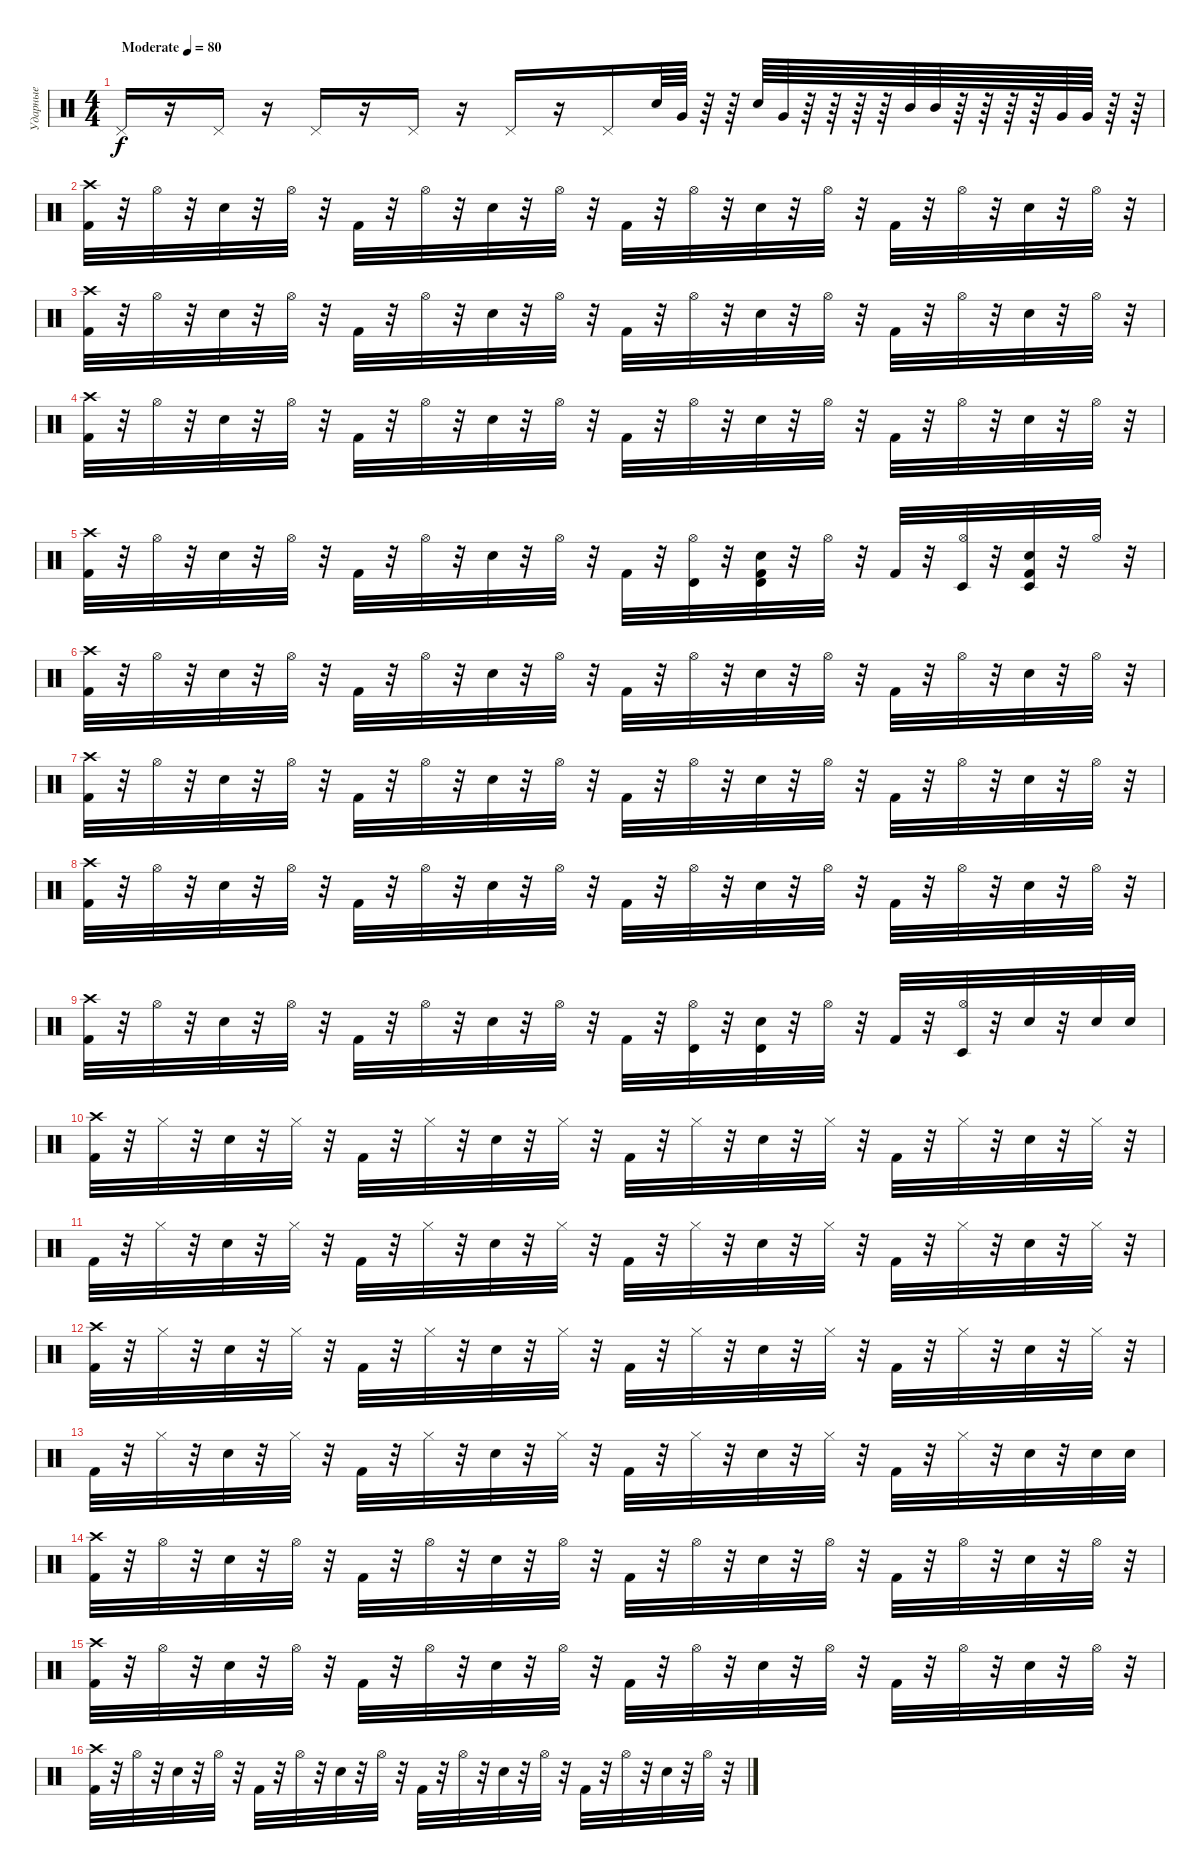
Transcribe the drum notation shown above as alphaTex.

\track ("Ударные" "Ударные") {instrument percussion}
\staff {score}
\articulation defaults
\ts (4 4)
\tempo (80 "Moderate")
\clef neutral
\ks c "Pedal Hi-Hat (hit)".16{dy f}
r.16 "Pedal Hi-Hat (hit)".16 r.16 "Pedal Hi-Hat (hit)".16 r.16 "Pedal Hi-Hat (hit)".16 r.16 "Pedal Hi-Hat (hit)".16 r.16 "Pedal Hi-Hat (hit)".16 "Snare (hit) 2".64 "Very Low Tom (hit)".64 r.64 r.64 "Snare (hit) 2".64 "Very Low Tom (hit)".64 r.64 r.64 r.64 r.64 "Mid Tom (hit)".64 "Mid Tom (hit)".64 r.64 r.64 r.64 r.64 "Very Low Tom (hit)".64 "Very Low Tom (hit)".64 r.64 r.64 |
("Crash high (hit)" "Kick (hit) 2").32 r.32 "Hi-Hat (open)".32 r.32 "Snare (hit) 2".32 r.32 "Hi-Hat (open)".32 r.32 "Kick (hit) 2".32 r.32 "Hi-Hat (open)".32 r.32 "Snare (hit) 2".32 r.32 "Hi-Hat (open)".32 r.32 "Kick (hit) 2".32 r.32 "Hi-Hat (open)".32 r.32 "Snare (hit) 2".32 r.32 "Hi-Hat (open)".32 r.32 "Kick (hit) 2".32 r.32 "Hi-Hat (open)".32 r.32 "Snare (hit) 2".32 r.32 "Hi-Hat (open)".32 r.32 |
("Crash high (hit)" "Kick (hit) 2").32 r.32 "Hi-Hat (open)".32 r.32 "Snare (hit) 2".32 r.32 "Hi-Hat (open)".32 r.32 "Kick (hit) 2".32 r.32 "Hi-Hat (open)".32 r.32 "Snare (hit) 2".32 r.32 "Hi-Hat (open)".32 r.32 "Kick (hit) 2".32 r.32 "Hi-Hat (open)".32 r.32 "Snare (hit) 2".32 r.32 "Hi-Hat (open)".32 r.32 "Kick (hit) 2".32 r.32 "Hi-Hat (open)".32 r.32 "Snare (hit) 2".32 r.32 "Hi-Hat (open)".32 r.32 |
("Crash high (hit)" "Kick (hit) 2").32 r.32 "Hi-Hat (open)".32 r.32 "Snare (hit) 2".32 r.32 "Hi-Hat (open)".32 r.32 "Kick (hit) 2".32 r.32 "Hi-Hat (open)".32 r.32 "Snare (hit) 2".32 r.32 "Hi-Hat (open)".32 r.32 "Kick (hit) 2".32 r.32 "Hi-Hat (open)".32 r.32 "Snare (hit) 2".32 r.32 "Hi-Hat (open)".32 r.32 "Kick (hit) 2".32 r.32 "Hi-Hat (open)".32 r.32 "Snare (hit) 2".32 r.32 "Hi-Hat (open)".32 r.32 |
("Crash high (hit)" "Kick (hit) 2").32 r.32 "Hi-Hat (open)".32 r.32 "Snare (hit) 2".32 r.32 "Hi-Hat (open)".32 r.32 "Kick (hit) 2".32 r.32 "Hi-Hat (open)".32 r.32 "Snare (hit) 2".32 r.32 "Hi-Hat (open)".32 r.32 "Kick (hit) 2".32 r.32 ("Hi-Hat (open)" "Timbale high (hit)").32 r.32 ("Snare (hit) 2" "Kick (hit) 2" "Timbale high (hit)").32 r.32 "Hi-Hat (open)".32 r.32 "Kick (hit) 2".32 r.32 ("Hi-Hat (open)" "Timbale low (hit)").32 r.32 ("Snare (hit) 2" "Kick (hit) 2" "Timbale low (hit)").32 r.32 "Hi-Hat (open)".32 r.32 |
("Crash high (hit)" "Kick (hit) 2").32 r.32 "Hi-Hat (open)".32 r.32 "Snare (hit) 2".32 r.32 "Hi-Hat (open)".32 r.32 "Kick (hit) 2".32 r.32 "Hi-Hat (open)".32 r.32 "Snare (hit) 2".32 r.32 "Hi-Hat (open)".32 r.32 "Kick (hit) 2".32 r.32 "Hi-Hat (open)".32 r.32 "Snare (hit) 2".32 r.32 "Hi-Hat (open)".32 r.32 "Kick (hit) 2".32 r.32 "Hi-Hat (open)".32 r.32 "Snare (hit) 2".32 r.32 "Hi-Hat (open)".32 r.32 |
("Crash high (hit)" "Kick (hit) 2").32 r.32 "Hi-Hat (open)".32 r.32 "Snare (hit) 2".32 r.32 "Hi-Hat (open)".32 r.32 "Kick (hit) 2".32 r.32 "Hi-Hat (open)".32 r.32 "Snare (hit) 2".32 r.32 "Hi-Hat (open)".32 r.32 "Kick (hit) 2".32 r.32 "Hi-Hat (open)".32 r.32 "Snare (hit) 2".32 r.32 "Hi-Hat (open)".32 r.32 "Kick (hit) 2".32 r.32 "Hi-Hat (open)".32 r.32 "Snare (hit) 2".32 r.32 "Hi-Hat (open)".32 r.32 |
("Crash high (hit)" "Kick (hit) 2").32 r.32 "Hi-Hat (open)".32 r.32 "Snare (hit) 2".32 r.32 "Hi-Hat (open)".32 r.32 "Kick (hit) 2".32 r.32 "Hi-Hat (open)".32 r.32 "Snare (hit) 2".32 r.32 "Hi-Hat (open)".32 r.32 "Kick (hit) 2".32 r.32 "Hi-Hat (open)".32 r.32 "Snare (hit) 2".32 r.32 "Hi-Hat (open)".32 r.32 "Kick (hit) 2".32 r.32 "Hi-Hat (open)".32 r.32 "Snare (hit) 2".32 r.32 "Hi-Hat (open)".32 r.32 |
("Crash high (hit)" "Kick (hit) 2").32 r.32 "Hi-Hat (open)".32 r.32 "Snare (hit) 2".32 r.32 "Hi-Hat (open)".32 r.32 "Kick (hit) 2".32 r.32 "Hi-Hat (open)".32 r.32 "Snare (hit) 2".32 r.32 "Hi-Hat (open)".32 r.32 "Kick (hit) 2".32 r.32 ("Hi-Hat (open)" "Timbale high (hit)").32 r.32 ("Snare (hit) 2" "Timbale high (hit)").32 r.32 "Hi-Hat (open)".32 r.32 "Kick (hit) 2".32 r.32 ("Hi-Hat (open)" "Timbale low (hit)").32 r.32 "Snare (hit) 2".32 r.32 "Snare (hit) 2".32 "Snare (hit) 2".32 |
("Crash high (hit)" "Kick (hit) 2").32 r.32 "Hi-Hat (closed)".32 r.32 "Snare (hit) 2".32 r.32 "Hi-Hat (closed)".32 r.32 "Kick (hit) 2".32 r.32 "Hi-Hat (closed)".32 r.32 "Snare (hit) 2".32 r.32 "Hi-Hat (closed)".32 r.32 "Kick (hit) 2".32 r.32 "Hi-Hat (closed)".32 r.32 "Snare (hit) 2".32 r.32 "Hi-Hat (closed)".32 r.32 "Kick (hit) 2".32 r.32 "Hi-Hat (closed)".32 r.32 "Snare (hit) 2".32 r.32 "Hi-Hat (closed)".32 r.32 |
"Kick (hit) 2".32 r.32 "Hi-Hat (closed)".32 r.32 "Snare (hit) 2".32 r.32 "Hi-Hat (closed)".32 r.32 "Kick (hit) 2".32 r.32 "Hi-Hat (closed)".32 r.32 "Snare (hit) 2".32 r.32 "Hi-Hat (closed)".32 r.32 "Kick (hit) 2".32 r.32 "Hi-Hat (closed)".32 r.32 "Snare (hit) 2".32 r.32 "Hi-Hat (closed)".32 r.32 "Kick (hit) 2".32 r.32 "Hi-Hat (closed)".32 r.32 "Snare (hit) 2".32 r.32 "Hi-Hat (closed)".32 r.32 |
("Crash high (hit)" "Kick (hit) 2").32 r.32 "Hi-Hat (closed)".32 r.32 "Snare (hit) 2".32 r.32 "Hi-Hat (closed)".32 r.32 "Kick (hit) 2".32 r.32 "Hi-Hat (closed)".32 r.32 "Snare (hit) 2".32 r.32 "Hi-Hat (closed)".32 r.32 "Kick (hit) 2".32 r.32 "Hi-Hat (closed)".32 r.32 "Snare (hit) 2".32 r.32 "Hi-Hat (closed)".32 r.32 "Kick (hit) 2".32 r.32 "Hi-Hat (closed)".32 r.32 "Snare (hit) 2".32 r.32 "Hi-Hat (closed)".32 r.32 |
"Kick (hit) 2".32 r.32 "Hi-Hat (closed)".32 r.32 "Snare (hit) 2".32 r.32 "Hi-Hat (closed)".32 r.32 "Kick (hit) 2".32 r.32 "Hi-Hat (closed)".32 r.32 "Snare (hit) 2".32 r.32 "Hi-Hat (closed)".32 r.32 "Kick (hit) 2".32 r.32 "Hi-Hat (closed)".32 r.32 "Snare (hit) 2".32 r.32 "Hi-Hat (closed)".32 r.32 "Kick (hit) 2".32 r.32 "Hi-Hat (closed)".32 r.32 "Snare (hit) 2".32 r.32 "Snare (hit) 2".32 "Snare (hit) 2".32 |
("Crash high (hit)" "Kick (hit) 2").32 r.32 "Hi-Hat (open)".32 r.32 "Snare (hit) 2".32 r.32 "Hi-Hat (open)".32 r.32 "Kick (hit) 2".32 r.32 "Hi-Hat (open)".32 r.32 "Snare (hit) 2".32 r.32 "Hi-Hat (open)".32 r.32 "Kick (hit) 2".32 r.32 "Hi-Hat (open)".32 r.32 "Snare (hit) 2".32 r.32 "Hi-Hat (open)".32 r.32 "Kick (hit) 2".32 r.32 "Hi-Hat (open)".32 r.32 "Snare (hit) 2".32 r.32 "Hi-Hat (open)".32 r.32 |
("Crash high (hit)" "Kick (hit) 2").32 r.32 "Hi-Hat (open)".32 r.32 "Snare (hit) 2".32 r.32 "Hi-Hat (open)".32 r.32 "Kick (hit) 2".32 r.32 "Hi-Hat (open)".32 r.32 "Snare (hit) 2".32 r.32 "Hi-Hat (open)".32 r.32 "Kick (hit) 2".32 r.32 "Hi-Hat (open)".32 r.32 "Snare (hit) 2".32 r.32 "Hi-Hat (open)".32 r.32 "Kick (hit) 2".32 r.32 "Hi-Hat (open)".32 r.32 "Snare (hit) 2".32 r.32 "Hi-Hat (open)".32 r.32 |
("Crash high (hit)" "Kick (hit) 2").32 r.32 "Hi-Hat (open)".32 r.32 "Snare (hit) 2".32 r.32 "Hi-Hat (open)".32 r.32 "Kick (hit) 2".32 r.32 "Hi-Hat (open)".32 r.32 "Snare (hit) 2".32 r.32 "Hi-Hat (open)".32 r.32 "Kick (hit) 2".32 r.32 "Hi-Hat (open)".32 r.32 "Snare (hit) 2".32 r.32 "Hi-Hat (open)".32 r.32 "Kick (hit) 2".32 r.32 "Hi-Hat (open)".32 r.32 "Snare (hit) 2".32 r.32 "Hi-Hat (open)".32 r.32
